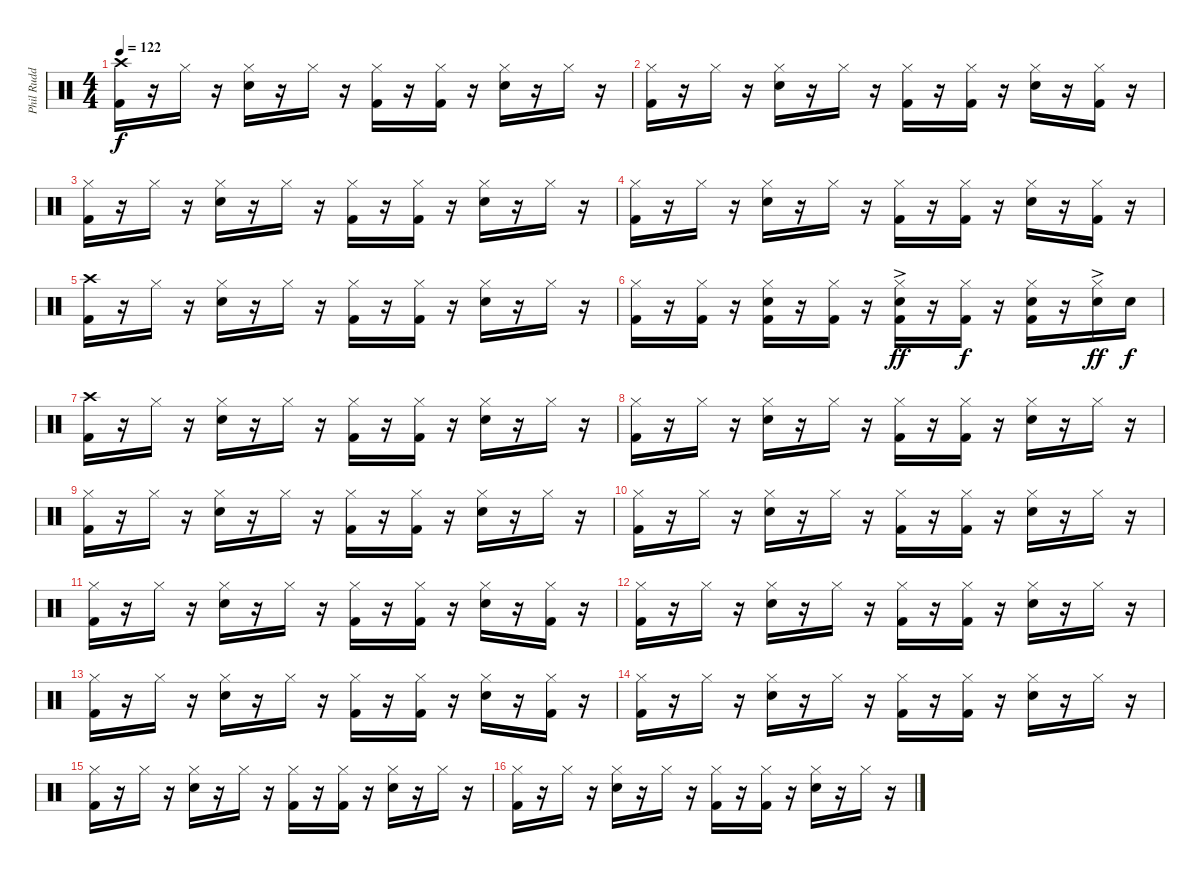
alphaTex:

\track ("Phil Rudd" "Phil Rudd") {instrument percussion}
\staff {score}
\articulation defaults
\ts (4 4)
\tempo 122
\clef neutral
\ks c
("Crash high (hit)" "Kick (hit) 2").16{dy f} r.16 "Hi-Hat (closed)".16 r.16 ("Hi-Hat (closed)" "Snare (hit) 2").16 r.16 "Hi-Hat (closed)".16 r.16 ("Hi-Hat (closed)" "Kick (hit) 2").16 r.16 ("Hi-Hat (closed)" "Kick (hit) 2").16 r.16 ("Hi-Hat (closed)" "Snare (hit) 2").16 r.16 "Hi-Hat (closed)".16 r.16 |
("Hi-Hat (closed)" "Kick (hit) 2").16 r.16 "Hi-Hat (closed)".16 r.16 ("Hi-Hat (closed)" "Snare (hit) 2").16 r.16 "Hi-Hat (closed)".16 r.16 ("Hi-Hat (closed)" "Kick (hit) 2").16 r.16 ("Hi-Hat (closed)" "Kick (hit) 2").16 r.16 ("Hi-Hat (closed)" "Snare (hit) 2").16 r.16 ("Hi-Hat (closed)" "Kick (hit) 2").16 r.16 |
("Hi-Hat (closed)" "Kick (hit) 2").16 r.16 "Hi-Hat (closed)".16 r.16 ("Hi-Hat (closed)" "Snare (hit) 2").16 r.16 "Hi-Hat (closed)".16 r.16 ("Hi-Hat (closed)" "Kick (hit) 2").16 r.16 ("Hi-Hat (closed)" "Kick (hit) 2").16 r.16 ("Hi-Hat (closed)" "Snare (hit) 2").16 r.16 "Hi-Hat (closed)".16 r.16 |
("Hi-Hat (closed)" "Kick (hit) 2").16 r.16 "Hi-Hat (closed)".16 r.16 ("Hi-Hat (closed)" "Snare (hit) 2").16 r.16 "Hi-Hat (closed)".16 r.16 ("Hi-Hat (closed)" "Kick (hit) 2").16 r.16 ("Hi-Hat (closed)" "Kick (hit) 2").16 r.16 ("Hi-Hat (closed)" "Snare (hit) 2").16 r.16 ("Hi-Hat (closed)" "Kick (hit) 2").16 r.16 |
("Crash high (hit)" "Kick (hit) 2").16 r.16 "Hi-Hat (closed)".16 r.16 ("Hi-Hat (closed)" "Snare (hit) 2").16 r.16 "Hi-Hat (closed)".16 r.16 ("Hi-Hat (closed)" "Kick (hit) 2").16 r.16 ("Hi-Hat (closed)" "Kick (hit) 2").16 r.16 ("Hi-Hat (closed)" "Snare (hit) 2").16 r.16 "Hi-Hat (closed)".16 r.16 |
("Hi-Hat (closed)" "Kick (hit) 2").16 r.16 ("Hi-Hat (closed)" "Kick (hit) 2").16 r.16 ("Hi-Hat (closed)" "Snare (hit) 2" "Kick (hit) 2").16 r.16 ("Hi-Hat (closed)" "Kick (hit) 2").16 r.16 ("Hi-Hat (closed)" "Snare (hit) 2"{ac} "Kick (hit) 2").16{dy ff} r.16 ("Hi-Hat (closed)" "Kick (hit) 2").16{dy f} r.16 ("Hi-Hat (closed)" "Snare (hit) 2" "Kick (hit) 2").16 r.16 ("Hi-Hat (closed)" "Snare (hit) 2"{ac}).16{dy ff} "Snare (hit) 2".16{dy f} |
("Crash high (hit)" "Kick (hit) 2").16 r.16 "Hi-Hat (closed)".16 r.16 ("Hi-Hat (closed)" "Snare (hit) 2").16 r.16 "Hi-Hat (closed)".16 r.16 ("Hi-Hat (closed)" "Kick (hit) 2").16 r.16 ("Hi-Hat (closed)" "Kick (hit) 2").16 r.16 ("Hi-Hat (closed)" "Snare (hit) 2").16 r.16 "Hi-Hat (closed)".16 r.16 |
("Hi-Hat (closed)" "Kick (hit) 2").16 r.16 "Hi-Hat (closed)".16 r.16 ("Hi-Hat (closed)" "Snare (hit) 2").16 r.16 "Hi-Hat (closed)".16 r.16 ("Hi-Hat (closed)" "Kick (hit) 2").16 r.16 ("Hi-Hat (closed)" "Kick (hit) 2").16 r.16 ("Hi-Hat (closed)" "Snare (hit) 2").16 r.16 "Hi-Hat (closed)".16 r.16 |
("Hi-Hat (closed)" "Kick (hit) 2").16 r.16 "Hi-Hat (closed)".16 r.16 ("Hi-Hat (closed)" "Snare (hit) 2").16 r.16 "Hi-Hat (closed)".16 r.16 ("Hi-Hat (closed)" "Kick (hit) 2").16 r.16 ("Hi-Hat (closed)" "Kick (hit) 2").16 r.16 ("Hi-Hat (closed)" "Snare (hit) 2").16 r.16 "Hi-Hat (closed)".16 r.16 |
("Hi-Hat (closed)" "Kick (hit) 2").16 r.16 "Hi-Hat (closed)".16 r.16 ("Hi-Hat (closed)" "Snare (hit) 2").16 r.16 "Hi-Hat (closed)".16 r.16 ("Hi-Hat (closed)" "Kick (hit) 2").16 r.16 ("Hi-Hat (closed)" "Kick (hit) 2").16 r.16 ("Hi-Hat (closed)" "Snare (hit) 2").16 r.16 "Hi-Hat (closed)".16 r.16 |
("Hi-Hat (closed)" "Kick (hit) 2").16 r.16 "Hi-Hat (closed)".16 r.16 ("Hi-Hat (closed)" "Snare (hit) 2").16 r.16 "Hi-Hat (closed)".16 r.16 ("Hi-Hat (closed)" "Kick (hit) 2").16 r.16 ("Hi-Hat (closed)" "Kick (hit) 2").16 r.16 ("Hi-Hat (closed)" "Snare (hit) 2").16 r.16 ("Hi-Hat (closed)" "Kick (hit) 2").16 r.16 |
("Hi-Hat (closed)" "Kick (hit) 2").16 r.16 "Hi-Hat (closed)".16 r.16 ("Hi-Hat (closed)" "Snare (hit) 2").16 r.16 "Hi-Hat (closed)".16 r.16 ("Hi-Hat (closed)" "Kick (hit) 2").16 r.16 ("Hi-Hat (closed)" "Kick (hit) 2").16 r.16 ("Hi-Hat (closed)" "Snare (hit) 2").16 r.16 "Hi-Hat (closed)".16 r.16 |
("Hi-Hat (closed)" "Kick (hit) 2").16 r.16 "Hi-Hat (closed)".16 r.16 ("Hi-Hat (closed)" "Snare (hit) 2").16 r.16 "Hi-Hat (closed)".16 r.16 ("Hi-Hat (closed)" "Kick (hit) 2").16 r.16 ("Hi-Hat (closed)" "Kick (hit) 2").16 r.16 ("Hi-Hat (closed)" "Snare (hit) 2").16 r.16 ("Hi-Hat (closed)" "Kick (hit) 2").16 r.16 |
("Hi-Hat (closed)" "Kick (hit) 2").16 r.16 "Hi-Hat (closed)".16 r.16 ("Hi-Hat (closed)" "Snare (hit) 2").16 r.16 "Hi-Hat (closed)".16 r.16 ("Hi-Hat (closed)" "Kick (hit) 2").16 r.16 ("Hi-Hat (closed)" "Kick (hit) 2").16 r.16 ("Hi-Hat (closed)" "Snare (hit) 2").16 r.16 "Hi-Hat (closed)".16 r.16 |
("Hi-Hat (closed)" "Kick (hit) 2").16 r.16 "Hi-Hat (closed)".16 r.16 ("Hi-Hat (closed)" "Snare (hit) 2").16 r.16 "Hi-Hat (closed)".16 r.16 ("Hi-Hat (closed)" "Kick (hit) 2").16 r.16 ("Hi-Hat (closed)" "Kick (hit) 2").16 r.16 ("Hi-Hat (closed)" "Snare (hit) 2").16 r.16 "Hi-Hat (closed)".16 r.16 |
("Hi-Hat (closed)" "Kick (hit) 2").16 r.16 "Hi-Hat (closed)".16 r.16 ("Hi-Hat (closed)" "Snare (hit) 2").16 r.16 "Hi-Hat (closed)".16 r.16 ("Hi-Hat (closed)" "Kick (hit) 2").16 r.16 ("Hi-Hat (closed)" "Kick (hit) 2").16 r.16 ("Hi-Hat (closed)" "Snare (hit) 2").16 r.16 "Hi-Hat (closed)".16 r.16
